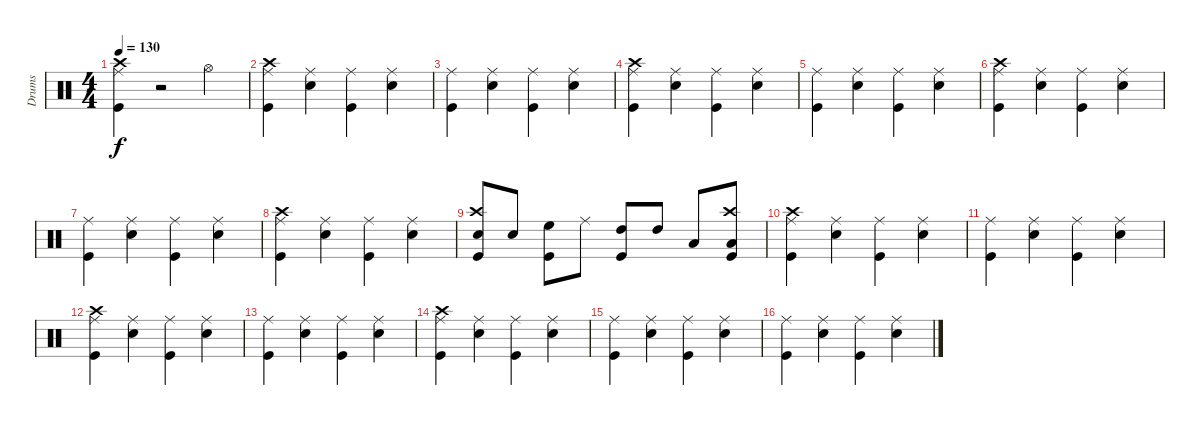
\track ("Drums" "Drums") {instrument percussion}
\staff {score}
\articulation defaults
\ts (4 4)
\tempo 130
\clef neutral
\ks c
("Kick (hit)" "Crash high (hit)" "Ride (middle)").4{dy f} r.2 "Hi-Hat (open)".4 |
("Kick (hit)" "Crash high (hit)" "Ride (middle)").4 ("Snare (hit) 2" "Ride (middle)").4 ("Kick (hit)" "Ride (middle)").4 ("Snare (hit) 2" "Ride (middle)").4 |
("Kick (hit)" "Ride (middle)").4 ("Snare (hit) 2" "Ride (middle)").4 ("Kick (hit)" "Ride (middle)").4 ("Snare (hit) 2" "Ride (middle)").4 |
("Kick (hit)" "Crash high (hit)" "Ride (middle)").4 ("Snare (hit) 2" "Ride (middle)").4 ("Kick (hit)" "Ride (middle)").4 ("Snare (hit) 2" "Ride (middle)").4 |
("Kick (hit)" "Ride (middle)").4 ("Snare (hit) 2" "Ride (middle)").4 ("Kick (hit)" "Ride (middle)").4 ("Snare (hit) 2" "Ride (middle)").4 |
("Kick (hit)" "Crash high (hit)" "Ride (middle)").4 ("Snare (hit) 2" "Ride (middle)").4 ("Kick (hit)" "Ride (middle)").4 ("Snare (hit) 2" "Ride (middle)").4 |
("Kick (hit)" "Ride (middle)").4 ("Snare (hit) 2" "Ride (middle)").4 ("Kick (hit)" "Ride (middle)").4 ("Snare (hit) 2" "Ride (middle)").4 |
("Kick (hit)" "Crash high (hit)" "Ride (middle)").4 ("Snare (hit) 2" "Ride (middle)").4 ("Kick (hit)" "Ride (middle)").4 ("Snare (hit) 2" "Ride (middle)").4 |
("Kick (hit)" "Snare (hit) 2" "Crash high (hit)").8 "Snare (hit) 2".8 ("Kick (hit)" "High Floor Tom (hit)").8 "Ride (middle)".8 ("Kick (hit)" "High Tom (hit)").8 "High Tom (hit)".8 "Low Tom (hit)".8 ("Kick (hit)" "Crash high (hit)" "Low Tom (hit)").8 |
("Kick (hit)" "Crash high (hit)" "Ride (middle)").4 ("Snare (hit) 2" "Ride (middle)").4 ("Kick (hit)" "Ride (middle)").4 ("Snare (hit) 2" "Ride (middle)").4 |
("Kick (hit)" "Ride (middle)").4 ("Snare (hit) 2" "Ride (middle)").4 ("Kick (hit)" "Ride (middle)").4 ("Snare (hit) 2" "Ride (middle)").4 |
("Kick (hit)" "Crash high (hit)" "Ride (middle)").4 ("Snare (hit) 2" "Ride (middle)").4 ("Kick (hit)" "Ride (middle)").4 ("Snare (hit) 2" "Ride (middle)").4 |
("Kick (hit)" "Ride (middle)").4 ("Snare (hit) 2" "Ride (middle)").4 ("Kick (hit)" "Ride (middle)").4 ("Snare (hit) 2" "Ride (middle)").4 |
("Kick (hit)" "Crash high (hit)" "Ride (middle)").4 ("Snare (hit) 2" "Ride (middle)").4 ("Kick (hit)" "Ride (middle)").4 ("Snare (hit) 2" "Ride (middle)").4 |
("Kick (hit)" "Ride (middle)").4 ("Snare (hit) 2" "Ride (middle)").4 ("Kick (hit)" "Ride (middle)").4 ("Snare (hit) 2" "Ride (middle)").4 |
("Kick (hit)" "Ride (middle)").4 ("Snare (hit) 2" "Ride (middle)").4 ("Kick (hit)" "Ride (middle)").4 ("Snare (hit) 2" "Ride (middle)").4
